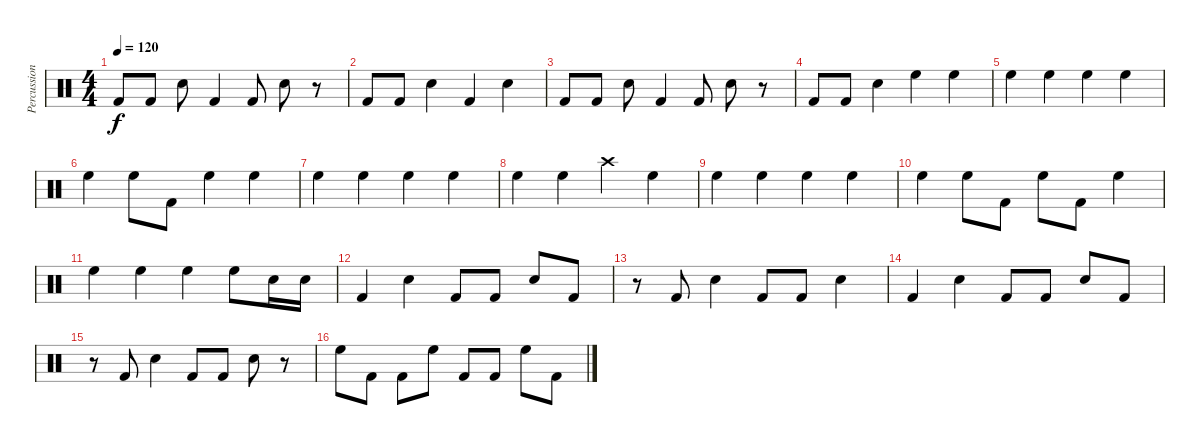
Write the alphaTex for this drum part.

\track ("Percussion" "Percussion") {instrument percussion}
\staff {score}
\articulation defaults
\ts (4 4)
\tempo 120
\clef neutral
\ks c "Kick (hit) 2".8{dy f} "Kick (hit) 2".8 "Electric Snare (hit)".8 "Kick (hit) 2".4 "Kick (hit) 2".8 "Electric Snare (hit)".8
r.8 |
"Kick (hit) 2".8 "Kick (hit) 2".8 "Electric Snare (hit)".4 "Kick (hit) 2".4 "Electric Snare (hit)".4 |
"Kick (hit) 2".8 "Kick (hit) 2".8 "Electric Snare (hit)".8 "Kick (hit) 2".4 "Kick (hit) 2".8 "Electric Snare (hit)".8 r.8 |
"Kick (hit) 2".8 "Kick (hit) 2".8 "Electric Snare (hit)".4 "High Floor Tom (hit)".4 "High Floor Tom (hit)".4 |
"High Floor Tom (hit)".4 "High Floor Tom (hit)".4 "High Floor Tom (hit)".4 "High Floor Tom (hit)".4 |
"High Floor Tom (hit)".4 "High Floor Tom (hit)".8 "Kick (hit) 2".8 "High Floor Tom (hit)".4 "High Floor Tom (hit)".4 |
"High Floor Tom (hit)".4 "High Floor Tom (hit)".4 "High Floor Tom (hit)".4 "High Floor Tom (hit)".4 |
"High Floor Tom (hit)".4 "High Floor Tom (hit)".4 "Crash high (hit)".4 "High Floor Tom (hit)".4 |
"High Floor Tom (hit)".4 "High Floor Tom (hit)".4 "High Floor Tom (hit)".4 "High Floor Tom (hit)".4 |
"High Floor Tom (hit)".4 "High Floor Tom (hit)".8 "Kick (hit) 2".8 "High Floor Tom (hit)".8 "Kick (hit) 2".8 "High Floor Tom (hit)".4 |
"High Floor Tom (hit)".4 "High Floor Tom (hit)".4 "High Floor Tom (hit)".4 "High Floor Tom (hit)".8 "Electric Snare (hit)".16 "Electric Snare (hit)".16 |
"Kick (hit) 2".4 "Electric Snare (hit)".4 "Kick (hit) 2".8 "Kick (hit) 2".8 "Electric Snare (hit)".8 "Kick (hit) 2".8 |
r.8 "Kick (hit) 2".8 "Electric Snare (hit)".4 "Kick (hit) 2".8 "Kick (hit) 2".8 "Electric Snare (hit)".4 |
"Kick (hit) 2".4 "Electric Snare (hit)".4 "Kick (hit) 2".8 "Kick (hit) 2".8 "Electric Snare (hit)".8 "Kick (hit) 2".8 |
r.8 "Kick (hit) 2".8 "Electric Snare (hit)".4 "Kick (hit) 2".8 "Kick (hit) 2".8 "Electric Snare (hit)".8 r.8 |
"High Floor Tom (hit)".8 "Kick (hit) 2".8 "Kick (hit) 2".8 "High Floor Tom (hit)".8 "Kick (hit) 2".8 "Kick (hit) 2".8 "High Floor Tom (hit)".8 "Kick (hit) 2".8
